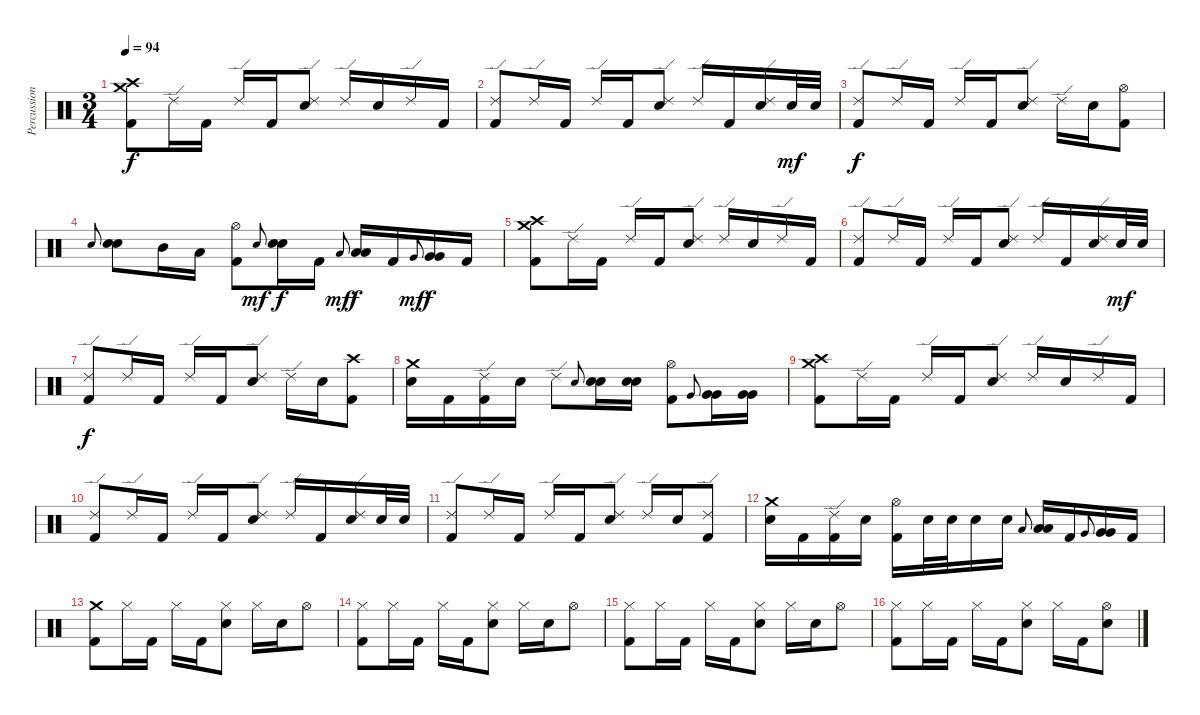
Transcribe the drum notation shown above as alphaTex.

\track ("Percussion" "Percussion") {instrument percussion}
\staff {score}
\articulation defaults
\ts (3 4)
\tempo 94
\clef neutral
\ks c
("Crash medium (hit)" "Crash high (hit)" "Kick (hit) 2").8{dy f} "Ride (edge) 2".16 "Kick (hit) 2".16 "Ride (edge) 2".16 "Kick (hit) 2".16 ("Ride (edge) 2" "Electric Snare (hit)").8 "Ride (edge) 2".16 "Electric Snare (hit)".16 "Ride (edge) 2".16 "Kick (hit) 2".16 |
("Ride (edge) 2" "Kick (hit) 2").8 "Ride (edge) 2".16 "Kick (hit) 2".16 "Ride (edge) 2".16 "Kick (hit) 2".16 ("Ride (edge) 2" "Electric Snare (hit)").8 "Ride (edge) 2".16 "Kick (hit) 2".16 ("Ride (edge) 2" "Electric Snare (hit)").16 "Electric Snare (hit)".32{dy mf} "Electric Snare (hit)".32 |
("Ride (edge) 2" "Kick (hit) 2").8{dy f} "Ride (edge) 2".16 "Kick (hit) 2".16 "Ride (edge) 2".16 "Kick (hit) 2".16 ("Ride (edge) 2" "Electric Snare (hit)").8 "Ride (edge) 2".16 "Electric Snare (hit)".16 ("Hi-Hat (open)" "Kick (hit) 2").8 |
"Electric Snare (hit)".8{gr onbeat} ("Electric Snare (hit)" "Electric Snare (hit)").8 "Mid Tom (hit)".16 "Low Tom (hit)".16 ("Hi-Hat (open)" "Kick (hit) 2").8 "Electric Snare (hit)".8{gr onbeat dy mf} ("Electric Snare (hit)" "Electric Snare (hit)").16{dy f} "Kick (hit) 2".16 "Low Tom (hit)".8{gr onbeat dy mf} ("Low Tom (hit)" "Low Tom (hit)").16{dy f} "Kick (hit) 2".16 "Very Low Tom (hit)".8{gr onbeat dy mf} ("Very Low Tom (hit)" "Very Low Tom (hit)").16{dy f} "Kick (hit) 2".16 |
("Crash medium (hit)" "Crash high (hit)" "Kick (hit) 2").8 "Ride (edge) 2".16 "Kick (hit) 2".16 "Ride (edge) 2".16 "Kick (hit) 2".16 ("Ride (edge) 2" "Electric Snare (hit)").8 "Ride (edge) 2".16 "Electric Snare (hit)".16 "Ride (edge) 2".16 "Kick (hit) 2".16 |
("Ride (edge) 2" "Kick (hit) 2").8 "Ride (edge) 2".16 "Kick (hit) 2".16 "Ride (edge) 2".16 "Kick (hit) 2".16 ("Ride (edge) 2" "Electric Snare (hit)").8 "Ride (edge) 2".16 "Kick (hit) 2".16 ("Ride (edge) 2" "Electric Snare (hit)").16 "Electric Snare (hit)".32{dy mf} "Electric Snare (hit)".32 |
("Ride (edge) 2" "Kick (hit) 2").8{dy f} "Ride (edge) 2".16 "Kick (hit) 2".16 "Ride (edge) 2".16 "Kick (hit) 2".16 ("Ride (edge) 2" "Electric Snare (hit)").8 "Ride (edge) 2".16 "Electric Snare (hit)".16 ("Crash high (hit)" "Kick (hit) 2").8 |
("Crash medium (hit)" "Electric Snare (hit)").16 "Kick (hit) 2".16 ("Ride (edge) 2" "Kick (hit) 2").16 "Electric Snare (hit)".16 "Ride (edge) 2".8 "Electric Snare (hit)".8{gr onbeat} ("Electric Snare (hit)" "Electric Snare (hit)").16 ("Electric Snare (hit)" "Electric Snare (hit)").16 ("Hi-Hat (open)" "Kick (hit) 2").8 "Very Low Tom (hit)".8{gr onbeat} ("Very Low Tom (hit)" "Very Low Tom (hit)").16 ("Very Low Tom (hit)" "Very Low Tom (hit)").16 |
("Crash medium (hit)" "Crash high (hit)" "Kick (hit) 2").8 "Ride (edge) 2".16 "Kick (hit) 2".16 "Ride (edge) 2".16 "Kick (hit) 2".16 ("Ride (edge) 2" "Electric Snare (hit)").8 "Ride (edge) 2".16 "Electric Snare (hit)".16 "Ride (edge) 2".16 "Kick (hit) 2".16 |
("Ride (edge) 2" "Kick (hit) 2").8 "Ride (edge) 2".16 "Kick (hit) 2".16 "Ride (edge) 2".16 "Kick (hit) 2".16 ("Ride (edge) 2" "Electric Snare (hit)").8 "Ride (edge) 2".16 "Kick (hit) 2".16 ("Ride (edge) 2" "Electric Snare (hit)").16 "Electric Snare (hit)".32 "Electric Snare (hit)".32 |
("Ride (edge) 2" "Kick (hit) 2").8 "Ride (edge) 2".16 "Kick (hit) 2".16 "Ride (edge) 2".16 "Kick (hit) 2".16 ("Ride (edge) 2" "Electric Snare (hit)").8 "Ride (edge) 2".16 "Electric Snare (hit)".16 ("Ride (edge) 2" "Kick (hit) 2").8 |
("Crash medium (hit)" "Electric Snare (hit)").16 "Kick (hit) 2".16 ("Ride (edge) 2" "Kick (hit) 2").16 "Electric Snare (hit)".16 ("Hi-Hat (open)" "Kick (hit) 2").16 "Electric Snare (hit)".32 "Electric Snare (hit)".32 "Electric Snare (hit)".16 "Electric Snare (hit)".16 "Low Tom (hit)".8{gr onbeat} ("Low Tom (hit)" "Low Tom (hit)").16 "Kick (hit) 2".16 "Very Low Tom (hit)".8{gr onbeat} ("Very Low Tom (hit)" "Very Low Tom (hit)").16 "Kick (hit) 2".16 |
("Crash medium (hit)" "Kick (hit) 2").8 "Hi-Hat (closed)".16 "Kick (hit) 2".16 "Hi-Hat (closed)".16 "Kick (hit) 2".16 ("Hi-Hat (closed)" "Electric Snare (hit)").8 "Hi-Hat (closed)".16 "Electric Snare (hit)".16 "Hi-Hat (open)".8 |
("Hi-Hat (closed)" "Kick (hit) 2").8 "Hi-Hat (closed)".16 "Kick (hit) 2".16 "Hi-Hat (closed)".16 "Kick (hit) 2".16 ("Hi-Hat (closed)" "Electric Snare (hit)").8 "Hi-Hat (closed)".16 "Electric Snare (hit)".16 "Hi-Hat (open)".8 |
("Hi-Hat (closed)" "Kick (hit) 2").8 "Hi-Hat (closed)".16 "Kick (hit) 2".16 "Hi-Hat (closed)".16 "Kick (hit) 2".16 ("Hi-Hat (closed)" "Electric Snare (hit)").8 "Hi-Hat (closed)".16 "Electric Snare (hit)".16 "Hi-Hat (open)".8 |
("Hi-Hat (closed)" "Kick (hit) 2").8 "Hi-Hat (closed)".16 "Kick (hit) 2".16 "Hi-Hat (closed)".16 "Kick (hit) 2".16 ("Hi-Hat (closed)" "Electric Snare (hit)").8 "Hi-Hat (closed)".16 "Kick (hit) 2".16 ("Hi-Hat (open)" "Electric Snare (hit)").8
